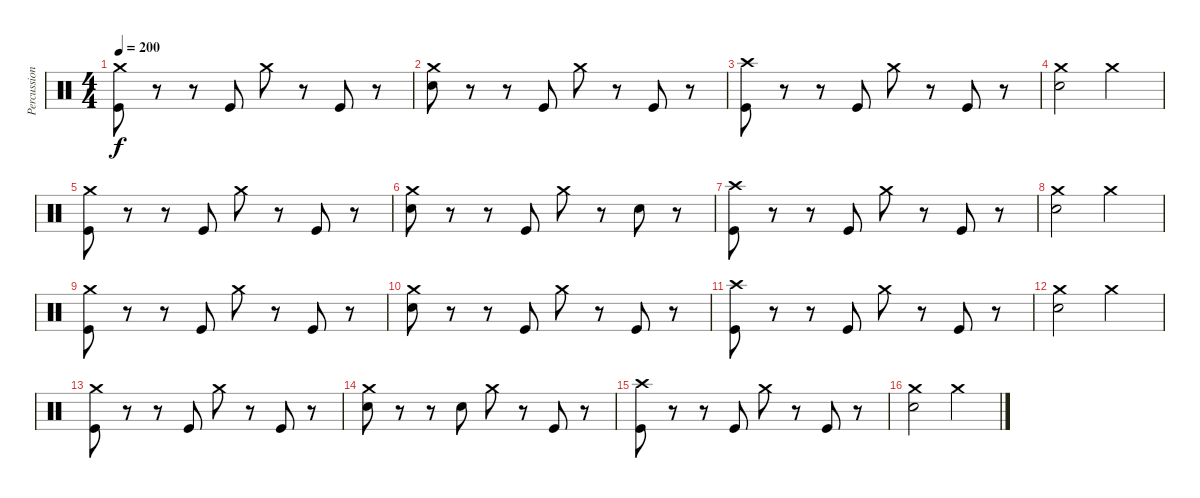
\track ("Percussion" "Percussion") {instrument percussion}
\staff {score}
\articulation defaults
\ts (4 4)
\tempo 200
\clef neutral
\ks c
("Crash medium (hit)" "Kick (hit)").8{dy f} r.8 r.8 "Kick (hit)".8 "Crash medium (hit)".8 r.8 "Kick (hit)".8 r.8 |
("Crash medium (hit)" "Electric Snare (hit)").8 r.8 r.8 "Kick (hit)".8 "Crash medium (hit)".8 r.8 "Kick (hit)".8 r.8 |
("Crash high (hit)" "Kick (hit)").8 r.8 r.8 "Kick (hit)".8 "Crash medium (hit)".8 r.8 "Kick (hit)".8 r.8 |
("Crash medium (hit)" "Electric Snare (hit)").2 "Crash medium (hit)".2 |
("Crash medium (hit)" "Kick (hit)").8 r.8 r.8 "Kick (hit)".8 "Crash medium (hit)".8 r.8 "Kick (hit)".8 r.8 |
("Crash medium (hit)" "Electric Snare (hit)").8 r.8 r.8 "Kick (hit)".8 "Crash medium (hit)".8 r.8 "Electric Snare (hit)".8 r.8 |
("Crash high (hit)" "Kick (hit)").8 r.8 r.8 "Kick (hit)".8 "Crash medium (hit)".8 r.8 "Kick (hit)".8 r.8 |
("Crash medium (hit)" "Electric Snare (hit)").2 "Crash medium (hit)".2 |
("Crash medium (hit)" "Kick (hit)").8 r.8 r.8 "Kick (hit)".8 "Crash medium (hit)".8 r.8 "Kick (hit)".8 r.8 |
("Crash medium (hit)" "Electric Snare (hit)").8 r.8 r.8 "Kick (hit)".8 "Crash medium (hit)".8 r.8 "Kick (hit)".8 r.8 |
("Crash high (hit)" "Kick (hit)").8 r.8 r.8 "Kick (hit)".8 "Crash medium (hit)".8 r.8 "Kick (hit)".8 r.8 |
("Crash medium (hit)" "Electric Snare (hit)").2 "Crash medium (hit)".2 |
("Crash medium (hit)" "Kick (hit)").8 r.8 r.8 "Kick (hit)".8 "Crash medium (hit)".8 r.8 "Kick (hit)".8 r.8 |
("Crash medium (hit)" "Electric Snare (hit)").8 r.8 r.8 "Electric Snare (hit)".8 "Crash medium (hit)".8 r.8 "Kick (hit)".8 r.8 |
("Crash high (hit)" "Kick (hit)").8 r.8 r.8 "Kick (hit)".8 "Crash medium (hit)".8 r.8 "Kick (hit)".8 r.8 |
("Crash medium (hit)" "Electric Snare (hit)").2 "Crash medium (hit)".2
